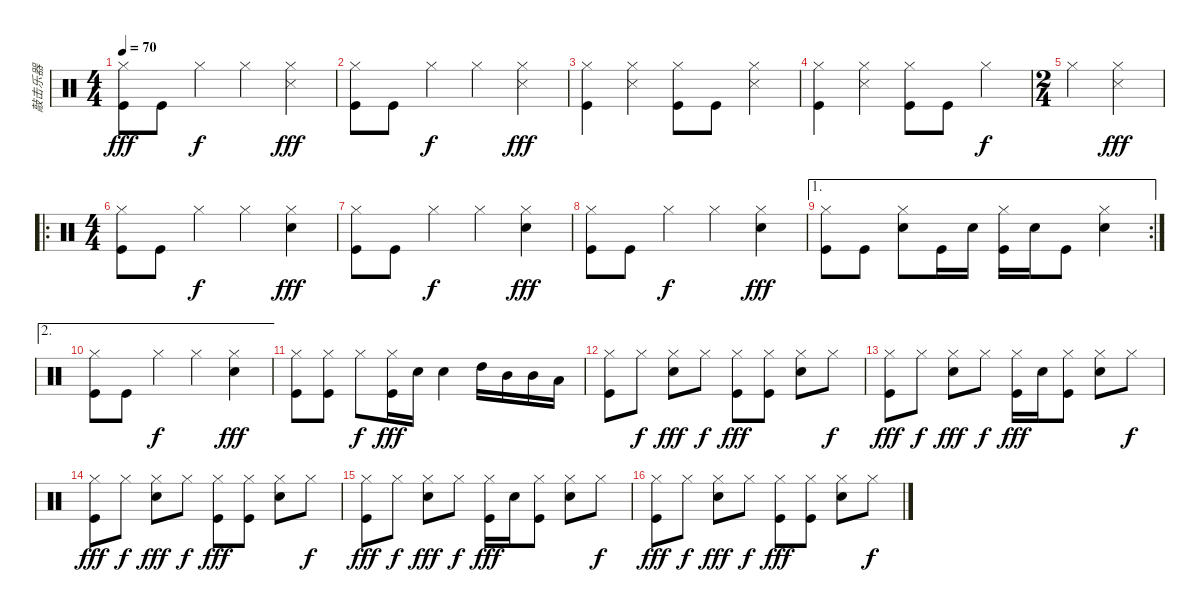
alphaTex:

\track ("敲击乐器" "敲击乐器") {instrument percussion}
\staff {score}
\articulation defaults
\ts (4 4)
\tempo 70
\clef neutral
\ks c
("Hi-Hat (closed)" "Kick (hit)").8{dy fff} "Kick (hit)".8 "Hi-Hat (closed)".4{dy f} "Hi-Hat (closed)".4 ("Hi-Hat (closed)" "Snare (side stick) 3").4{dy fff} |
("Hi-Hat (closed)" "Kick (hit)").8 "Kick (hit)".8 "Hi-Hat (closed)".4{dy f} "Hi-Hat (closed)".4 ("Hi-Hat (closed)" "Snare (side stick) 3").4{dy fff} |
("Hi-Hat (closed)" "Kick (hit)").4 ("Hi-Hat (closed)" "Snare (side stick) 3").4 ("Hi-Hat (closed)" "Kick (hit)").8 "Kick (hit)".8 ("Hi-Hat (closed)" "Snare (side stick) 3").4 |
("Hi-Hat (closed)" "Kick (hit)").4 ("Hi-Hat (closed)" "Snare (side stick) 3").4 ("Hi-Hat (closed)" "Kick (hit)").8 "Kick (hit)".8 "Hi-Hat (closed)".4{dy f} |
\ts (2 4)
"Hi-Hat (closed)".4 ("Hi-Hat (closed)" "Snare (side stick) 3").4{dy fff} |
\ro
\ts (4 4)
("Hi-Hat (closed)" "Kick (hit)").8 "Kick (hit)".8 "Hi-Hat (closed)".4{dy f} "Hi-Hat (closed)".4 ("Hi-Hat (closed)" "Snare (hit) 2").4{dy fff} |
("Hi-Hat (closed)" "Kick (hit)").8 "Kick (hit)".8 "Hi-Hat (closed)".4{dy f} "Hi-Hat (closed)".4 ("Hi-Hat (closed)" "Snare (hit) 2").4{dy fff} |
("Hi-Hat (closed)" "Kick (hit)").8 "Kick (hit)".8 "Hi-Hat (closed)".4{dy f} "Hi-Hat (closed)".4 ("Hi-Hat (closed)" "Snare (hit) 2").4{dy fff} |
\ae 1
\rc 2
("Hi-Hat (closed)" "Kick (hit)").8 "Kick (hit)".8 ("Hi-Hat (closed)" "Snare (hit) 2").8 "Kick (hit)".16 "Snare (hit) 2".16 ("Hi-Hat (closed)" "Kick (hit)").16 "Snare (hit) 2".16 "Kick (hit)".8 ("Hi-Hat (closed)" "Snare (hit) 2").4 |
\ae 2
("Hi-Hat (closed)" "Kick (hit)").8 "Kick (hit)".8 "Hi-Hat (closed)".4{dy f} "Hi-Hat (closed)".4 ("Hi-Hat (closed)" "Snare (hit) 2").4{dy fff} |
("Hi-Hat (closed)" "Kick (hit)").8 ("Hi-Hat (closed)" "Kick (hit)").8 "Hi-Hat (closed)".8{dy f} ("Hi-Hat (closed)" "Kick (hit)").16{dy fff} "Snare (hit) 2".16 "Snare (hit) 2".4 "High Tom (hit)".16 "Mid Tom (hit)".16 "Mid Tom (hit)".16 "Low Tom (hit)".16 |
("Hi-Hat (closed)" "Kick (hit)").8 "Hi-Hat (closed)".8{dy f} ("Hi-Hat (closed)" "Snare (hit) 2").8{dy fff} "Hi-Hat (closed)".8{dy f} ("Hi-Hat (closed)" "Kick (hit)").8{dy fff} ("Hi-Hat (closed)" "Kick (hit)").8 ("Hi-Hat (closed)" "Snare (hit) 2").8 "Hi-Hat (closed)".8{dy f} |
("Hi-Hat (closed)" "Kick (hit)").8{dy fff} "Hi-Hat (closed)".8{dy f} ("Hi-Hat (closed)" "Snare (hit) 2").8{dy fff} "Hi-Hat (closed)".8{dy f} ("Hi-Hat (closed)" "Kick (hit)").16{dy fff} "Snare (hit) 2".16 ("Hi-Hat (closed)" "Kick (hit)").8 ("Hi-Hat (closed)" "Snare (hit) 2").8 "Hi-Hat (closed)".8{dy f} |
("Hi-Hat (closed)" "Kick (hit)").8{dy fff} "Hi-Hat (closed)".8{dy f} ("Hi-Hat (closed)" "Snare (hit) 2").8{dy fff} "Hi-Hat (closed)".8{dy f} ("Hi-Hat (closed)" "Kick (hit)").8{dy fff} ("Hi-Hat (closed)" "Kick (hit)").8 ("Hi-Hat (closed)" "Snare (hit) 2").8 "Hi-Hat (closed)".8{dy f} |
("Hi-Hat (closed)" "Kick (hit)").8{dy fff} "Hi-Hat (closed)".8{dy f} ("Hi-Hat (closed)" "Snare (hit) 2").8{dy fff} "Hi-Hat (closed)".8{dy f} ("Hi-Hat (closed)" "Kick (hit)").16{dy fff} "Snare (hit) 2".16 ("Hi-Hat (closed)" "Kick (hit)").8 ("Hi-Hat (closed)" "Snare (hit) 2").8 "Hi-Hat (closed)".8{dy f} |
("Hi-Hat (closed)" "Kick (hit)").8{dy fff} "Hi-Hat (closed)".8{dy f} ("Hi-Hat (closed)" "Snare (hit) 2").8{dy fff} "Hi-Hat (closed)".8{dy f} ("Hi-Hat (closed)" "Kick (hit)").8{dy fff} ("Hi-Hat (closed)" "Kick (hit)").8 ("Hi-Hat (closed)" "Snare (hit) 2").8 "Hi-Hat (closed)".8{dy f}
